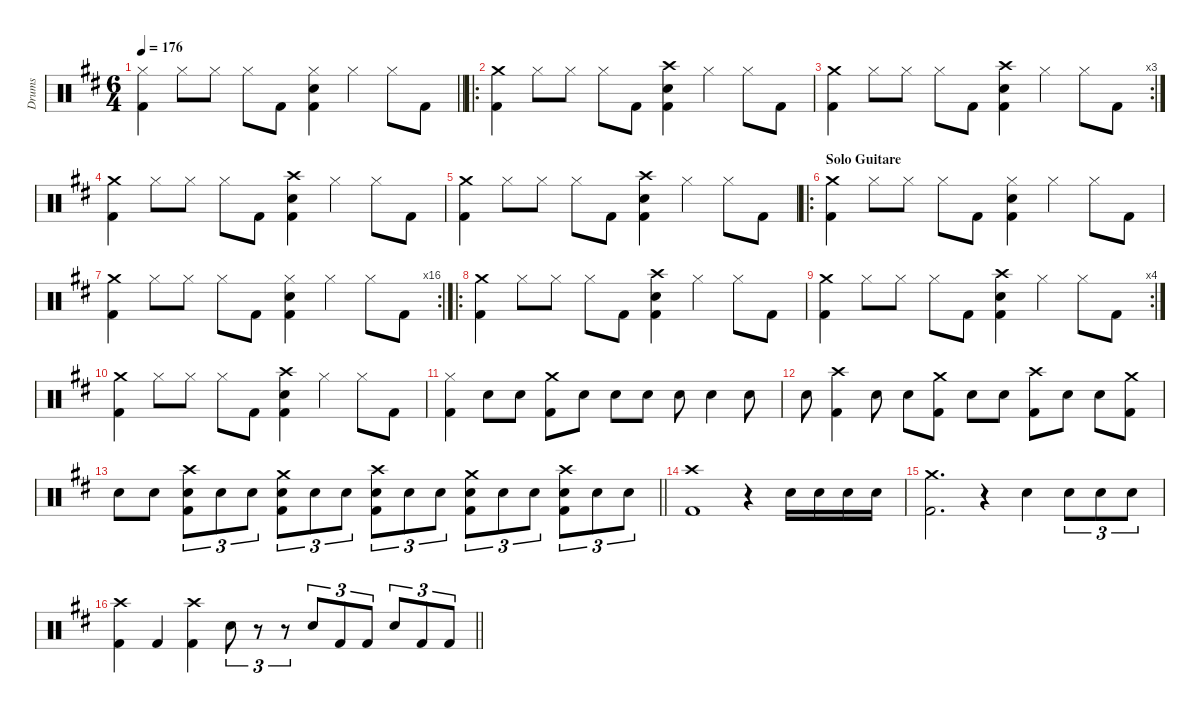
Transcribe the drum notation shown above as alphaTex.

\hideDynamics
\bracketExtendMode groupsimilarinstruments
\otherSystemsTrackNameOrientation horizontal
\track ("Drumkit" "Drums") {defaultSystemsLayout 4 instrument percussion}
\staff {score}
\articulation defaults
\ts (6 4)
\tempo 176
\clef neutral
\barLineRight lightlight
\ks bminor
("Hi-Hat (closed)"{acc forcenatural} "Kick (hit) 2"{acc forcenatural}).4{dy f beam Down} "Hi-Hat (closed)"{acc forcenatural}.8{beam Down} "Hi-Hat (closed)"{acc forcenatural}.8{beam Down} "Hi-Hat (closed)"{acc forcenatural}.8{beam Down} "Kick (hit) 2"{acc forcenatural}.8{beam Down} ("Hi-Hat (closed)"{acc forcenatural} "Snare (hit) 2"{acc forcenatural} "Kick (hit) 2"{acc forcenatural}).4{beam Down} "Hi-Hat (closed)"{acc forcenatural}.4{beam Down} "Hi-Hat (closed)"{acc forcenatural}.8{beam Down} "Kick (hit) 2"{acc forcenatural}.8{beam Down} |
\ro
("Crash medium (hit)"{acc forcenatural} "Kick (hit) 2"{acc forcenatural}).4{dy ff beam Down} "Hi-Hat (closed)"{acc forcenatural}.8{dy f beam Down} "Hi-Hat (closed)"{acc forcenatural}.8{beam Down} "Hi-Hat (closed)"{acc forcenatural}.8{beam Down} "Kick (hit) 2"{acc forcenatural}.8{beam Down} ("Crash high (hit)"{acc forcenatural} "Snare (hit) 2"{acc forcenatural} "Kick (hit) 2"{acc forcenatural}).4{beam Down} "Hi-Hat (closed)"{acc forcenatural}.4{beam Down} "Hi-Hat (closed)"{acc forcenatural}.8{beam Down} "Kick (hit) 2"{acc forcenatural}.8{beam Down} |
\rc 3
("Crash medium (hit)"{acc forcenatural} "Kick (hit) 2"{acc forcenatural}).4{dy ff beam Down} "Hi-Hat (closed)"{acc forcenatural}.8{dy f beam Down} "Hi-Hat (closed)"{acc forcenatural}.8{beam Down} "Hi-Hat (closed)"{acc forcenatural}.8{beam Down} "Kick (hit) 2"{acc forcenatural}.8{beam Down} ("Crash high (hit)"{acc forcenatural} "Snare (hit) 2"{acc forcenatural} "Kick (hit) 2"{acc forcenatural}).4{beam Down} "Hi-Hat (closed)"{acc forcenatural}.4{beam Down} "Hi-Hat (closed)"{acc forcenatural}.8{beam Down} "Kick (hit) 2"{acc forcenatural}.8{beam Down} |
("Crash medium (hit)"{acc forcenatural} "Kick (hit) 2"{acc forcenatural}).4{dy ff beam Down} "Hi-Hat (closed)"{acc forcenatural}.8{dy f beam Down} "Hi-Hat (closed)"{acc forcenatural}.8{beam Down} "Hi-Hat (closed)"{acc forcenatural}.8{beam Down} "Kick (hit) 2"{acc forcenatural}.8{beam Down} ("Crash high (hit)"{acc forcenatural} "Snare (hit) 2"{acc forcenatural} "Kick (hit) 2"{acc forcenatural}).4{beam Down} "Hi-Hat (closed)"{acc forcenatural}.4{beam Down} "Hi-Hat (closed)"{acc forcenatural}.8{beam Down} "Kick (hit) 2"{acc forcenatural}.8{beam Down} |
("Crash medium (hit)"{acc forcenatural} "Kick (hit) 2"{acc forcenatural}).4{dy ff beam Down} "Hi-Hat (closed)"{acc forcenatural}.8{dy f beam Down} "Hi-Hat (closed)"{acc forcenatural}.8{beam Down} "Hi-Hat (closed)"{acc forcenatural}.8{beam Down} "Kick (hit) 2"{acc forcenatural}.8{beam Down} ("Crash high (hit)"{acc forcenatural} "Snare (hit) 2"{acc forcenatural} "Kick (hit) 2"{acc forcenatural}).4{beam Down} "Hi-Hat (closed)"{acc forcenatural}.4{beam Down} "Hi-Hat (closed)"{acc forcenatural}.8{beam Down} "Kick (hit) 2"{acc forcenatural}.8{beam Down} |
\ro
\section ("" "Solo Guitare")
("Crash medium (hit)"{acc forcenatural} "Kick (hit) 2"{acc forcenatural}).4{dy ff beam Down} "Hi-Hat (closed)"{acc forcenatural}.8{dy f beam Down} "Hi-Hat (closed)"{acc forcenatural}.8{beam Down} "Hi-Hat (closed)"{acc forcenatural}.8{beam Down} "Kick (hit) 2"{acc forcenatural}.8{beam Down} ("Hi-Hat (closed)"{acc forcenatural} "Snare (hit) 2"{acc forcenatural} "Kick (hit) 2"{acc forcenatural}).4{beam Down} "Hi-Hat (closed)"{acc forcenatural}.4{beam Down} "Hi-Hat (closed)"{acc forcenatural}.8{beam Down} "Kick (hit) 2"{acc forcenatural}.8{beam Down} |
\rc 16
("Crash medium (hit)"{acc forcenatural} "Kick (hit) 2"{acc forcenatural}).4{dy ff beam Down} "Hi-Hat (closed)"{acc forcenatural}.8{dy f beam Down} "Hi-Hat (closed)"{acc forcenatural}.8{beam Down} "Hi-Hat (closed)"{acc forcenatural}.8{beam Down} "Kick (hit) 2"{acc forcenatural}.8{beam Down} ("Hi-Hat (closed)"{acc forcenatural} "Snare (hit) 2"{acc forcenatural} "Kick (hit) 2"{acc forcenatural}).4{beam Down} "Hi-Hat (closed)"{acc forcenatural}.4{beam Down} "Hi-Hat (closed)"{acc forcenatural}.8{beam Down} "Kick (hit) 2"{acc forcenatural}.8{beam Down} |
\ro
("Crash medium (hit)"{acc forcenatural} "Kick (hit) 2"{acc forcenatural}).4{dy ff beam Down} "Hi-Hat (closed)"{acc forcenatural}.8{dy f beam Down} "Hi-Hat (closed)"{acc forcenatural}.8{beam Down} "Hi-Hat (closed)"{acc forcenatural}.8{beam Down} "Kick (hit) 2"{acc forcenatural}.8{beam Down} ("Crash high (hit)"{acc forcenatural} "Snare (hit) 2"{acc forcenatural} "Kick (hit) 2"{acc forcenatural}).4{beam Down} "Hi-Hat (closed)"{acc forcenatural}.4{beam Down} "Hi-Hat (closed)"{acc forcenatural}.8{beam Down} "Kick (hit) 2"{acc forcenatural}.8{beam Down} |
\rc 4
("Crash medium (hit)"{acc forcenatural} "Kick (hit) 2"{acc forcenatural}).4{dy ff beam Down} "Hi-Hat (closed)"{acc forcenatural}.8{dy f beam Down} "Hi-Hat (closed)"{acc forcenatural}.8{beam Down} "Hi-Hat (closed)"{acc forcenatural}.8{beam Down} "Kick (hit) 2"{acc forcenatural}.8{beam Down} ("Crash high (hit)"{acc forcenatural} "Snare (hit) 2"{acc forcenatural} "Kick (hit) 2"{acc forcenatural}).4{beam Down} "Hi-Hat (closed)"{acc forcenatural}.4{beam Down} "Hi-Hat (closed)"{acc forcenatural}.8{beam Down} "Kick (hit) 2"{acc forcenatural}.8{beam Down} |
("Crash medium (hit)"{acc forcenatural} "Kick (hit) 2"{acc forcenatural}).4{dy ff beam Down} "Hi-Hat (closed)"{acc forcenatural}.8{dy f beam Down} "Hi-Hat (closed)"{acc forcenatural}.8{beam Down} "Hi-Hat (closed)"{acc forcenatural}.8{beam Down} "Kick (hit) 2"{acc forcenatural}.8{beam Down} ("Crash high (hit)"{acc forcenatural} "Snare (hit) 2"{acc forcenatural} "Kick (hit) 2"{acc forcenatural}).4{beam Down} "Hi-Hat (closed)"{acc forcenatural}.4{beam Down} "Hi-Hat (closed)"{acc forcenatural}.8{beam Down} "Kick (hit) 2"{acc forcenatural}.8{beam Down} |
("Hi-Hat (closed)"{acc forcenatural} "Kick (hit) 2"{acc forcenatural}).4{beam Down} "Snare (hit) 2"{acc forcenatural}.8{beam Down} "Snare (hit) 2"{acc forcenatural}.8{beam Down} ("Crash medium (hit)"{acc forcenatural} "Kick (hit) 2"{acc forcenatural}).8{beam Down} "Snare (hit) 2"{acc forcenatural}.8{beam Down} "Snare (hit) 2"{acc forcenatural}.8{beam Down} "Snare (hit) 2"{acc forcenatural}.8{beam Down} "Snare (hit) 2"{acc forcenatural}.8{beam Down} "Snare (hit) 2"{acc forcenatural}.4{beam Down} "Snare (hit) 2"{acc forcenatural}.8{beam Down} |
"Snare (hit) 2"{acc forcenatural}.8{beam Down} ("Crash high (hit)"{acc forcenatural} "Kick (hit) 2"{acc forcenatural}).4{beam Down} "Snare (hit) 2"{acc forcenatural}.8{beam Down} "Snare (hit) 2"{acc forcenatural}.8{beam Down} ("Crash medium (hit)"{acc forcenatural} "Kick (hit) 2"{acc forcenatural}).8{beam Down} "Snare (hit) 2"{acc forcenatural}.8{beam Down} "Snare (hit) 2"{acc forcenatural}.8{beam Down} ("Crash high (hit)"{acc forcenatural} "Kick (hit) 2"{acc forcenatural}).8{beam Down} "Snare (hit) 2"{acc forcenatural}.8{beam Down} "Snare (hit) 2"{acc forcenatural}.8{beam Down} ("Crash medium (hit)"{acc forcenatural} "Kick (hit) 2"{acc forcenatural}).8{beam Down} |
\barLineRight lightlight "Snare (hit) 2"{acc forcenatural}.8{beam Down} "Snare (hit) 2"{acc forcenatural}.8{beam Down}
("Crash high (hit)"{acc forcenatural} "Snare (hit) 2"{acc forcenatural} "Kick (hit) 2"{acc forcenatural}).8{tu (3 2) beam Down} "Snare (hit) 2"{acc forcenatural}.8{tu (3 2) beam Down} "Snare (hit) 2"{acc forcenatural}.8{tu (3 2) beam Down} ("Crash medium (hit)"{acc forcenatural} "Snare (hit) 2"{acc forcenatural} "Kick (hit) 2"{acc forcenatural}).8{tu (3 2) beam Down} "Snare (hit) 2"{acc forcenatural}.8{tu (3 2) beam Down} "Snare (hit) 2"{acc forcenatural}.8{tu (3 2) beam Down} ("Crash high (hit)"{acc forcenatural} "Snare (hit) 2"{acc forcenatural} "Kick (hit) 2"{acc forcenatural}).8{tu (3 2) beam Down} "Snare (hit) 2"{acc forcenatural}.8{tu (3 2) beam Down} "Snare (hit) 2"{acc forcenatural}.8{tu (3 2) beam Down} ("Crash medium (hit)"{acc forcenatural} "Snare (hit) 2"{acc forcenatural} "Kick (hit) 2"{acc forcenatural}).8{tu (3 2) beam Down} "Snare (hit) 2"{acc forcenatural}.8{tu (3 2) beam Down} "Snare (hit) 2"{acc forcenatural}.8{tu (3 2) beam Down} ("Crash high (hit)"{acc forcenatural} "Snare (hit) 2"{acc forcenatural} "Kick (hit) 2"{acc forcenatural}).8{tu (3 2) beam Down} "Snare (hit) 2"{acc forcenatural}.8{tu (3 2) beam Down} "Snare (hit) 2"{acc forcenatural}.8{tu (3 2) beam Down} |
("Crash high (hit)"{acc forcenatural} "Kick (hit) 2"{acc forcenatural}).1{dy ff beam Down} r.4{beam Down} "Snare (hit) 2"{acc forcenatural}.16{dy mf beam Down} "Snare (hit) 2"{acc forcenatural}.16{dy f beam Down} "Snare (hit) 2"{acc forcenatural}.16{dy ff beam Down} "Snare (hit) 2"{acc forcenatural}.16{dy fff beam Down} |
("Crash medium (hit)"{acc forcenatural} "Kick (hit) 2"{acc forcenatural}).2{d dy ff beam Down} r.4{beam Down} "Snare (hit) 2"{acc forcenatural}.4{dy fff beam Down} "Snare (hit) 2"{acc forcenatural}.8{tu (3 2) dy ff beam Down} "Snare (hit) 2"{acc forcenatural}.8{tu (3 2) beam Down} "Snare (hit) 2"{acc forcenatural}.8{tu (3 2) beam Down} |
\barLineRight lightlight
("Crash high (hit)"{acc forcenatural} "Kick (hit) 2"{acc forcenatural}).4{dy f beam Down} "Kick (hit) 2"{acc forcenatural}.4{beam Up} ("Crash high (hit)"{acc forcenatural} "Kick (hit) 2"{acc forcenatural}).4{beam Down} "Snare (hit) 2"{acc forcenatural}.8{tu (3 2) dy fff beam Down} r.8{tu (3 2) beam Down} r.8{tu (3 2) beam Down} "Snare (hit) 2"{acc forcenatural}.8{tu (3 2) beam Up} "Kick (hit) 2"{acc forcenatural}.8{tu (3 2) dy ff beam Up} "Kick (hit) 2"{acc forcenatural}.8{tu (3 2) beam Up} "Snare (hit) 2"{acc forcenatural}.8{tu (3 2) dy fff beam Up} "Kick (hit) 2"{acc forcenatural}.8{tu (3 2) dy ff beam Up} "Kick (hit) 2"{acc forcenatural}.8{tu (3 2) beam Up}
